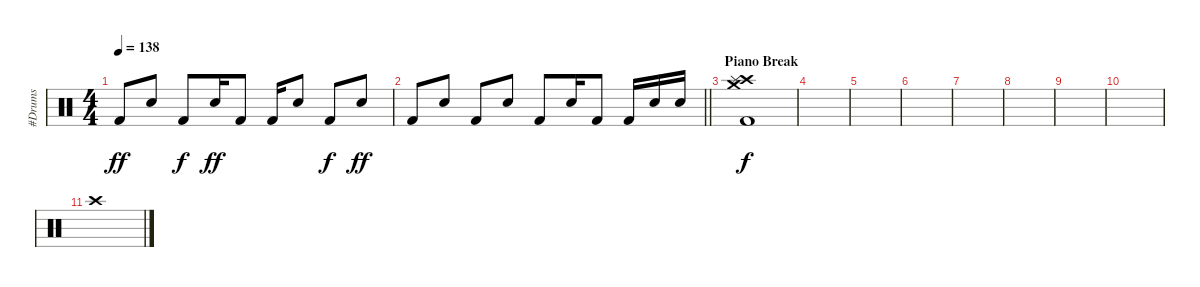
\track ("#Drums" "#Drums") {instrument percussion}
\staff {score}
\articulation defaults
\ts (4 4)
\tempo 138
\clef neutral
\ks c "Kick (hit) 2".8{dy ff} "Snare (hit) 2".8 "Kick (hit) 2".8{dy f} "Snare (hit) 2".16{dy ff} "Kick (hit) 2".8 "Kick (hit) 2".16 "Snare (hit) 2".8 "Kick (hit) 2".8{dy f} "Snare (hit) 2".8{dy ff}
|
\barLineRight lightlight "Kick (hit) 2".8 "Snare (hit) 2".8 "Kick (hit) 2".8 "Snare (hit) 2".8 "Kick (hit) 2".8 "Snare (hit) 2".16 "Kick (hit) 2".8 "Kick (hit) 2".16 "Snare (hit) 2".16 "Snare (hit) 2".16
|
\section ("" "Piano Break")
("Crash high (hit)" "Crash medium (hit)" "Splash (hit)" "Kick (hit) 2").1{dy f} |
|
|
|
|
|
|
|
"Crash high (hit)".1
